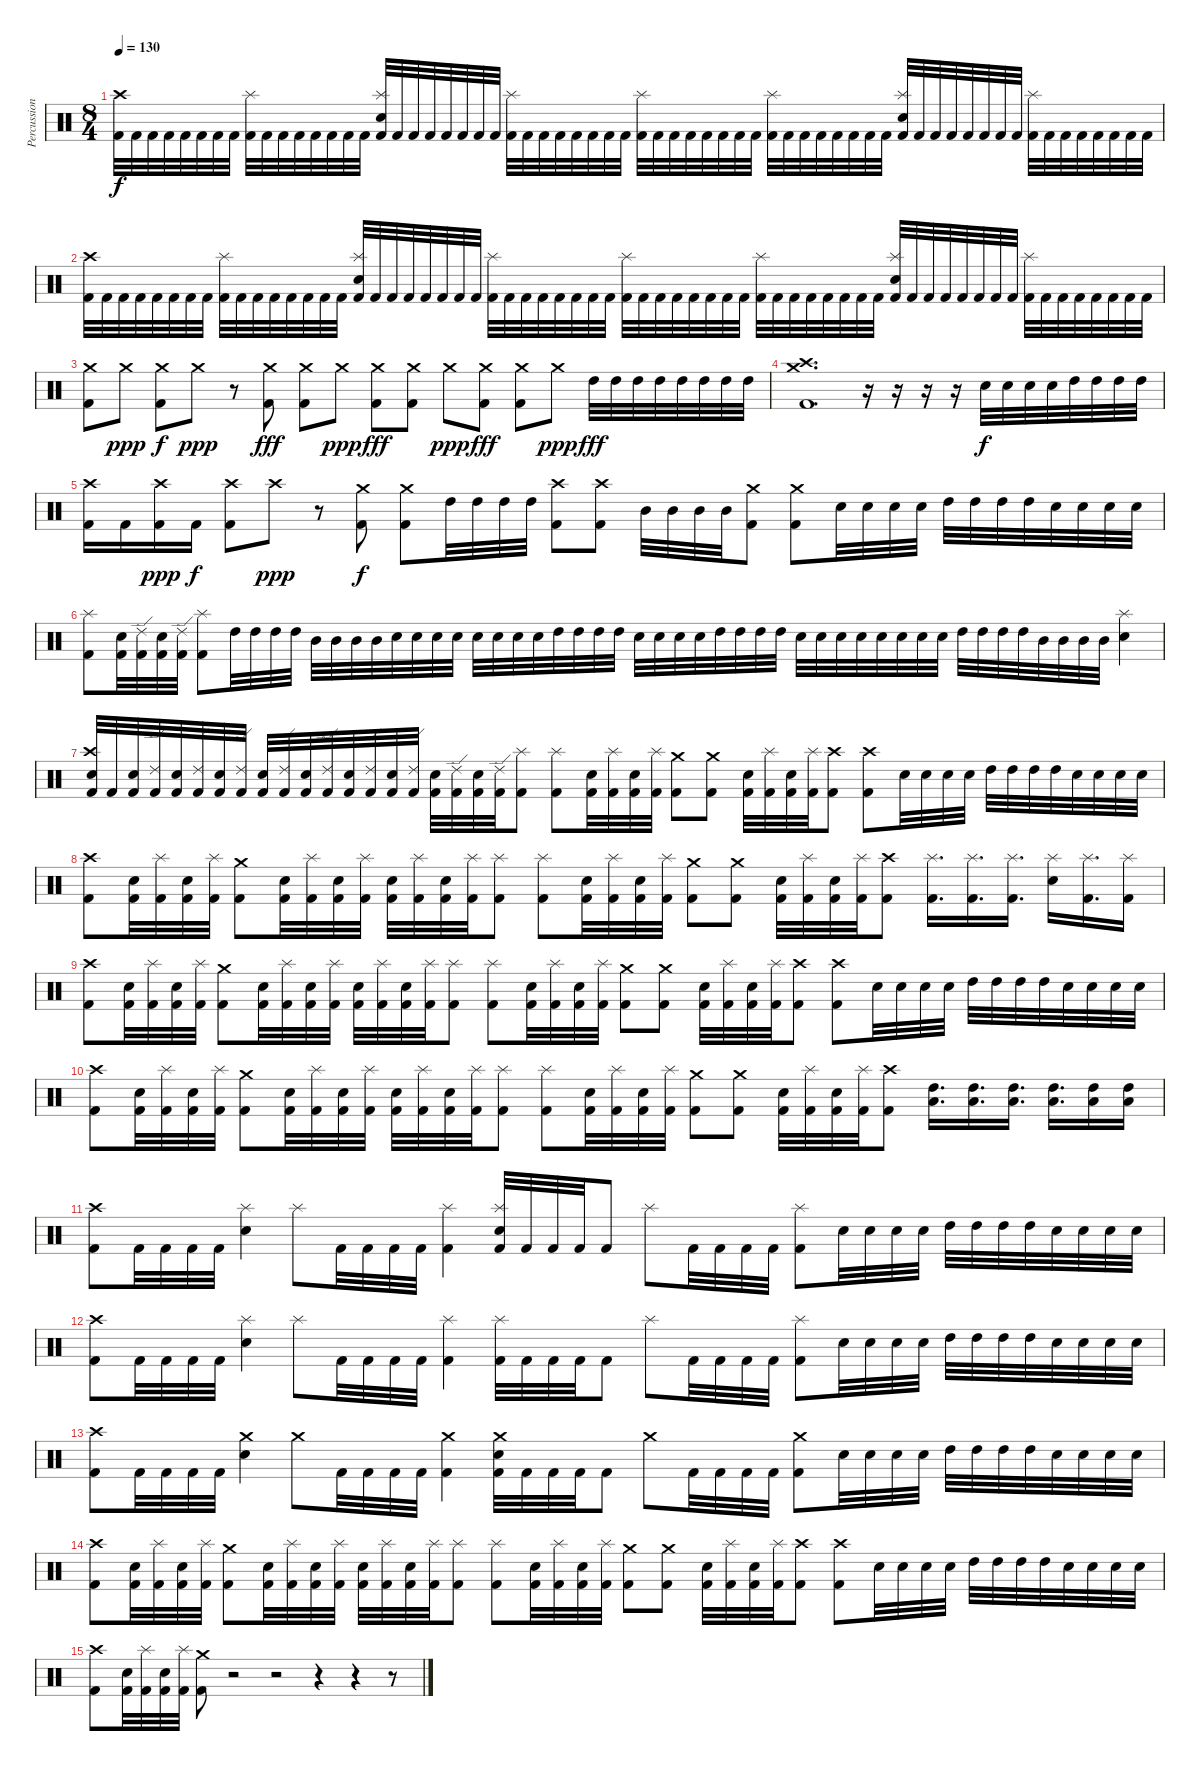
\track ("Percussion" "Percussion") {instrument percussion}
\staff {score}
\articulation defaults
\ts (8 4)
\tempo 130
\clef neutral
\ks c
("Kick (hit) 2" "Crash high (hit)").32{dy f} "Kick (hit) 2".32 "Kick (hit) 2".32 "Kick (hit) 2".32 "Kick (hit) 2".32 "Kick (hit) 2".32 "Kick (hit) 2".32 "Kick (hit) 2".32 ("Kick (hit) 2" "Splash (hit)").32 "Kick (hit) 2".32 "Kick (hit) 2".32 "Kick (hit) 2".32 "Kick (hit) 2".32 "Kick (hit) 2".32 "Kick (hit) 2".32 "Kick (hit) 2".32 ("Kick (hit) 2" "Electric Snare (hit)" "Splash (hit)").32 "Kick (hit) 2".32 "Kick (hit) 2".32 "Kick (hit) 2".32 "Kick (hit) 2".32 "Kick (hit) 2".32 "Kick (hit) 2".32 "Kick (hit) 2".32 ("Kick (hit) 2" "Splash (hit)").32 "Kick (hit) 2".32 "Kick (hit) 2".32 "Kick (hit) 2".32 "Kick (hit) 2".32 "Kick (hit) 2".32 "Kick (hit) 2".32 "Kick (hit) 2".32 ("Kick (hit) 2" "Splash (hit)").32 "Kick (hit) 2".32 "Kick (hit) 2".32 "Kick (hit) 2".32 "Kick (hit) 2".32 "Kick (hit) 2".32 "Kick (hit) 2".32 "Kick (hit) 2".32 ("Kick (hit) 2" "Splash (hit)").32 "Kick (hit) 2".32 "Kick (hit) 2".32 "Kick (hit) 2".32 "Kick (hit) 2".32 "Kick (hit) 2".32 "Kick (hit) 2".32 "Kick (hit) 2".32 ("Kick (hit) 2" "Electric Snare (hit)" "Splash (hit)").32 "Kick (hit) 2".32 "Kick (hit) 2".32 "Kick (hit) 2".32 "Kick (hit) 2".32 "Kick (hit) 2".32 "Kick (hit) 2".32 "Kick (hit) 2".32 ("Kick (hit) 2" "Splash (hit)").32 "Kick (hit) 2".32 "Kick (hit) 2".32 "Kick (hit) 2".32 "Kick (hit) 2".32 "Kick (hit) 2".32 "Kick (hit) 2".32 "Kick (hit) 2".32 |
("Kick (hit) 2" "Crash high (hit)").32 "Kick (hit) 2".32 "Kick (hit) 2".32 "Kick (hit) 2".32 "Kick (hit) 2".32 "Kick (hit) 2".32 "Kick (hit) 2".32 "Kick (hit) 2".32 ("Kick (hit) 2" "Splash (hit)").32 "Kick (hit) 2".32 "Kick (hit) 2".32 "Kick (hit) 2".32 "Kick (hit) 2".32 "Kick (hit) 2".32 "Kick (hit) 2".32 "Kick (hit) 2".32 ("Kick (hit) 2" "Electric Snare (hit)" "Splash (hit)").32 "Kick (hit) 2".32 "Kick (hit) 2".32 "Kick (hit) 2".32 "Kick (hit) 2".32 "Kick (hit) 2".32 "Kick (hit) 2".32 "Kick (hit) 2".32 ("Kick (hit) 2" "Splash (hit)").32 "Kick (hit) 2".32 "Kick (hit) 2".32 "Kick (hit) 2".32 "Kick (hit) 2".32 "Kick (hit) 2".32 "Kick (hit) 2".32 "Kick (hit) 2".32 ("Kick (hit) 2" "Splash (hit)").32 "Kick (hit) 2".32 "Kick (hit) 2".32 "Kick (hit) 2".32 "Kick (hit) 2".32 "Kick (hit) 2".32 "Kick (hit) 2".32 "Kick (hit) 2".32 ("Kick (hit) 2" "Splash (hit)").32 "Kick (hit) 2".32 "Kick (hit) 2".32 "Kick (hit) 2".32 "Kick (hit) 2".32 "Kick (hit) 2".32 "Kick (hit) 2".32 "Kick (hit) 2".32 ("Kick (hit) 2" "Electric Snare (hit)" "Splash (hit)").32 "Kick (hit) 2".32 "Kick (hit) 2".32 "Kick (hit) 2".32 "Kick (hit) 2".32 "Kick (hit) 2".32 "Kick (hit) 2".32 "Kick (hit) 2".32 ("Kick (hit) 2" "Splash (hit)").32 "Kick (hit) 2".32 "Kick (hit) 2".32 "Kick (hit) 2".32 "Kick (hit) 2".32 "Kick (hit) 2".32 "Kick (hit) 2".32 "Kick (hit) 2".32 |
("Kick (hit) 2" "Crash medium (hit)").8 "Crash medium (hit)".8{dy ppp} ("Kick (hit) 2" "Crash medium (hit)").8{dy f} "Crash medium (hit)".8{dy ppp} r.8 ("Kick (hit) 2" "Crash medium (hit)").8{dy fff} ("Kick (hit) 2" "Crash medium (hit)").8 "Crash medium (hit)".8{dy ppp} ("Kick (hit) 2" "Crash medium (hit)").8{dy fff} ("Kick (hit) 2" "Crash medium (hit)").8 "Crash medium (hit)".8{dy ppp} ("Kick (hit) 2" "Crash medium (hit)").8{dy fff} ("Kick (hit) 2" "Crash medium (hit)").8 "Crash medium (hit)".8{dy ppp} "High Tom (hit)".32{dy fff} "High Tom (hit)".32 "High Tom (hit)".32 "High Tom (hit)".32 "High Tom (hit)".32 "High Tom (hit)".32 "High Tom (hit)".32 "High Tom (hit)".32 |
("Kick (hit) 2" "Crash high (hit)" "Crash medium (hit)").1{d} r.16 r.16 r.16 r.16 "Electric Snare (hit)".32{dy f} "Electric Snare (hit)".32 "Electric Snare (hit)".32 "Electric Snare (hit)".32 "High Tom (hit)".32 "High Tom (hit)".32 "High Tom (hit)".32 "High Tom (hit)".32 |
("Kick (hit) 2" "Crash high (hit)").16 "Kick (hit) 2".16 ("Kick (hit) 2" "Crash high (hit)").16{dy ppp} "Kick (hit) 2".16{dy f} ("Kick (hit) 2" "Crash high (hit)").8 "Crash high (hit)".8{dy ppp} r.8 ("Kick (hit) 2" "Crash medium (hit)").8{dy f} ("Kick (hit) 2" "Crash medium (hit)").8 "High Tom (hit)".32 "High Tom (hit)".32 "High Tom (hit)".32 "High Tom (hit)".32 ("Kick (hit) 2" "Crash high (hit)").8 ("Kick (hit) 2" "Crash high (hit)").8 "Mid Tom (hit)".32 "Mid Tom (hit)".32 "Mid Tom (hit)".32 "Mid Tom (hit)".32 ("Kick (hit) 2" "Crash medium (hit)").8 ("Kick (hit) 2" "Crash medium (hit)").8 "Electric Snare (hit)".32 "Electric Snare (hit)".32 "Electric Snare (hit)".32 "Electric Snare (hit)".32 "High Tom (hit)".32 "High Tom (hit)".32 "High Tom (hit)".32 "High Tom (hit)".32 "Electric Snare (hit)".32 "Electric Snare (hit)".32 "Electric Snare (hit)".32 "Electric Snare (hit)".32 |
("Kick (hit) 2" "Splash (hit)").8 ("Kick (hit) 2" "Electric Snare (hit)").32 ("Kick (hit) 2" "Ride (edge) 2").32 ("Kick (hit) 2" "Electric Snare (hit)").32 ("Kick (hit) 2" "Ride (edge) 2").32 ("Kick (hit) 2" "Splash (hit)").8 "High Tom (hit)".32 "High Tom (hit)".32 "High Tom (hit)".32 "High Tom (hit)".32 "Mid Tom (hit)".32 "Mid Tom (hit)".32 "Mid Tom (hit)".32 "Mid Tom (hit)".32 "Electric Snare (hit)".32 "Electric Snare (hit)".32 "Electric Snare (hit)".32 "Electric Snare (hit)".32 "Electric Snare (hit)".32 "Electric Snare (hit)".32 "Electric Snare (hit)".32 "Electric Snare (hit)".32 "High Tom (hit)".32 "High Tom (hit)".32 "High Tom (hit)".32 "High Tom (hit)".32 "Electric Snare (hit)".32 "Electric Snare (hit)".32 "Electric Snare (hit)".32 "Electric Snare (hit)".32 "High Tom (hit)".32 "High Tom (hit)".32 "High Tom (hit)".32 "High Tom (hit)".32 "Electric Snare (hit)".32 "Electric Snare (hit)".32 "Electric Snare (hit)".32 "Electric Snare (hit)".32 "Electric Snare (hit)".32 "Electric Snare (hit)".32 "Electric Snare (hit)".32 "Electric Snare (hit)".32 "High Tom (hit)".32 "High Tom (hit)".32 "High Tom (hit)".32 "High Tom (hit)".32 "Mid Tom (hit)".32 "Mid Tom (hit)".32 "Mid Tom (hit)".32 "Mid Tom (hit)".32 ("Electric Snare (hit)" "Splash (hit)").4 |
("Kick (hit) 2" "Electric Snare (hit)" "Crash high (hit)").32 "Kick (hit) 2".32 ("Kick (hit) 2" "Electric Snare (hit)").32 ("Kick (hit) 2" "Ride (edge) 2").32 ("Kick (hit) 2" "Electric Snare (hit)").32 ("Kick (hit) 2" "Ride (edge) 2").32 ("Kick (hit) 2" "Electric Snare (hit)").32 ("Kick (hit) 2" "Ride (edge) 2").32 ("Kick (hit) 2" "Electric Snare (hit)").32 ("Kick (hit) 2" "Ride (edge) 2").32 ("Kick (hit) 2" "Electric Snare (hit)").32 ("Kick (hit) 2" "Ride (edge) 2").32 ("Kick (hit) 2" "Electric Snare (hit)").32 ("Kick (hit) 2" "Ride (edge) 2").32 ("Kick (hit) 2" "Electric Snare (hit)").32 ("Kick (hit) 2" "Ride (edge) 2").32 ("Kick (hit) 2" "Electric Snare (hit)").32 ("Kick (hit) 2" "Ride (edge) 2").32 ("Kick (hit) 2" "Electric Snare (hit)").32 ("Kick (hit) 2" "Ride (edge) 2").32 ("Kick (hit) 2" "Splash (hit)").8 ("Kick (hit) 2" "Splash (hit)").8 ("Kick (hit) 2" "Electric Snare (hit)").32 ("Kick (hit) 2" "Splash (hit)").32 ("Kick (hit) 2" "Electric Snare (hit)").32 ("Kick (hit) 2" "Splash (hit)").32 ("Kick (hit) 2" "Crash medium (hit)").8 ("Kick (hit) 2" "Crash medium (hit)").8 ("Kick (hit) 2" "Electric Snare (hit)").32 ("Kick (hit) 2" "Splash (hit)").32 ("Kick (hit) 2" "Electric Snare (hit)").32 ("Kick (hit) 2" "Splash (hit)").32 ("Kick (hit) 2" "Crash high (hit)").8 ("Kick (hit) 2" "Crash high (hit)").8 "Electric Snare (hit)".32 "Electric Snare (hit)".32 "Electric Snare (hit)".32 "Electric Snare (hit)".32 "High Tom (hit)".32 "High Tom (hit)".32 "High Tom (hit)".32 "High Tom (hit)".32 "Electric Snare (hit)".32 "Electric Snare (hit)".32 "Electric Snare (hit)".32 "Electric Snare (hit)".32 |
("Kick (hit) 2" "Crash high (hit)").8 ("Kick (hit) 2" "Electric Snare (hit)").32 ("Kick (hit) 2" "Splash (hit)").32 ("Kick (hit) 2" "Electric Snare (hit)").32 ("Kick (hit) 2" "Splash (hit)").32 ("Kick (hit) 2" "Crash medium (hit)").8 ("Kick (hit) 2" "Electric Snare (hit)").32 ("Kick (hit) 2" "Splash (hit)").32 ("Kick (hit) 2" "Electric Snare (hit)").32 ("Kick (hit) 2" "Splash (hit)").32 ("Kick (hit) 2" "Electric Snare (hit)").32 ("Kick (hit) 2" "Splash (hit)").32 ("Kick (hit) 2" "Electric Snare (hit)").32 ("Kick (hit) 2" "Splash (hit)").32 ("Kick (hit) 2" "Splash (hit)").8 ("Kick (hit) 2" "Splash (hit)").8 ("Kick (hit) 2" "Electric Snare (hit)").32 ("Kick (hit) 2" "Splash (hit)").32 ("Kick (hit) 2" "Electric Snare (hit)").32 ("Kick (hit) 2" "Splash (hit)").32 ("Kick (hit) 2" "Crash medium (hit)").8 ("Kick (hit) 2" "Crash medium (hit)").8 ("Kick (hit) 2" "Electric Snare (hit)").32 ("Kick (hit) 2" "Splash (hit)").32 ("Kick (hit) 2" "Electric Snare (hit)").32 ("Kick (hit) 2" "Splash (hit)").32 ("Kick (hit) 2" "Crash high (hit)").8 ("Kick (hit) 2" "Splash (hit)").16{d} ("Kick (hit) 2" "Splash (hit)").16{d} ("Kick (hit) 2" "Splash (hit)").16{d} ("Electric Snare (hit)" "Splash (hit)").16 ("Kick (hit) 2" "Splash (hit)").16{d} ("Kick (hit) 2" "Splash (hit)").16 |
("Kick (hit) 2" "Crash high (hit)").8 ("Kick (hit) 2" "Electric Snare (hit)").32 ("Kick (hit) 2" "Splash (hit)").32 ("Kick (hit) 2" "Electric Snare (hit)").32 ("Kick (hit) 2" "Splash (hit)").32 ("Kick (hit) 2" "Crash medium (hit)").8 ("Kick (hit) 2" "Electric Snare (hit)").32 ("Kick (hit) 2" "Splash (hit)").32 ("Kick (hit) 2" "Electric Snare (hit)").32 ("Kick (hit) 2" "Splash (hit)").32 ("Kick (hit) 2" "Electric Snare (hit)").32 ("Kick (hit) 2" "Splash (hit)").32 ("Kick (hit) 2" "Electric Snare (hit)").32 ("Kick (hit) 2" "Splash (hit)").32 ("Kick (hit) 2" "Splash (hit)").8 ("Kick (hit) 2" "Splash (hit)").8 ("Kick (hit) 2" "Electric Snare (hit)").32 ("Kick (hit) 2" "Splash (hit)").32 ("Kick (hit) 2" "Electric Snare (hit)").32 ("Kick (hit) 2" "Splash (hit)").32 ("Kick (hit) 2" "Crash medium (hit)").8 ("Kick (hit) 2" "Crash medium (hit)").8 ("Kick (hit) 2" "Electric Snare (hit)").32 ("Kick (hit) 2" "Splash (hit)").32 ("Kick (hit) 2" "Electric Snare (hit)").32 ("Kick (hit) 2" "Splash (hit)").32 ("Kick (hit) 2" "Crash high (hit)").8 ("Kick (hit) 2" "Crash high (hit)").8 "Electric Snare (hit)".32 "Electric Snare (hit)".32 "Electric Snare (hit)".32 "Electric Snare (hit)".32 "High Tom (hit)".32 "High Tom (hit)".32 "High Tom (hit)".32 "High Tom (hit)".32 "Electric Snare (hit)".32 "Electric Snare (hit)".32 "Electric Snare (hit)".32 "Electric Snare (hit)".32 |
("Kick (hit) 2" "Crash high (hit)").8 ("Kick (hit) 2" "Electric Snare (hit)").32 ("Kick (hit) 2" "Splash (hit)").32 ("Kick (hit) 2" "Electric Snare (hit)").32 ("Kick (hit) 2" "Splash (hit)").32 ("Kick (hit) 2" "Crash medium (hit)").8 ("Kick (hit) 2" "Electric Snare (hit)").32 ("Kick (hit) 2" "Splash (hit)").32 ("Kick (hit) 2" "Electric Snare (hit)").32 ("Kick (hit) 2" "Splash (hit)").32 ("Kick (hit) 2" "Electric Snare (hit)").32 ("Kick (hit) 2" "Splash (hit)").32 ("Kick (hit) 2" "Electric Snare (hit)").32 ("Kick (hit) 2" "Splash (hit)").32 ("Kick (hit) 2" "Splash (hit)").8 ("Kick (hit) 2" "Splash (hit)").8 ("Kick (hit) 2" "Electric Snare (hit)").32 ("Kick (hit) 2" "Splash (hit)").32 ("Kick (hit) 2" "Electric Snare (hit)").32 ("Kick (hit) 2" "Splash (hit)").32 ("Kick (hit) 2" "Crash medium (hit)").8 ("Kick (hit) 2" "Crash medium (hit)").8 ("Kick (hit) 2" "Electric Snare (hit)").32 ("Kick (hit) 2" "Splash (hit)").32 ("Kick (hit) 2" "Electric Snare (hit)").32 ("Kick (hit) 2" "Splash (hit)").32 ("Kick (hit) 2" "Crash high (hit)").8 ("High Tom (hit)" "Low Floor Tom (hit)").16{d} ("High Tom (hit)" "Low Floor Tom (hit)").16{d} ("High Tom (hit)" "Low Floor Tom (hit)").16{d} ("High Tom (hit)" "Low Floor Tom (hit)").16{d} ("High Tom (hit)" "Low Floor Tom (hit)").16 ("High Tom (hit)" "Low Floor Tom (hit)").16 |
("Kick (hit) 2" "Crash high (hit)").8 "Kick (hit) 2".32 "Kick (hit) 2".32 "Kick (hit) 2".32 "Kick (hit) 2".32 ("Electric Snare (hit)" "Splash (hit)").4 "Splash (hit)".8 "Kick (hit) 2".32 "Kick (hit) 2".32 "Kick (hit) 2".32 "Kick (hit) 2".32 ("Kick (hit) 2" "Splash (hit)").4 ("Kick (hit) 2" "Electric Snare (hit)" "Splash (hit)").32 "Kick (hit) 2".32 "Kick (hit) 2".32 "Kick (hit) 2".32 "Kick (hit) 2".8 "Splash (hit)".8 "Kick (hit) 2".32 "Kick (hit) 2".32 "Kick (hit) 2".32 "Kick (hit) 2".32 ("Kick (hit) 2" "Splash (hit)").8 "Electric Snare (hit)".32 "Electric Snare (hit)".32 "Electric Snare (hit)".32 "Electric Snare (hit)".32 "High Tom (hit)".32 "High Tom (hit)".32 "High Tom (hit)".32 "High Tom (hit)".32 "Electric Snare (hit)".32 "Electric Snare (hit)".32 "Electric Snare (hit)".32 "Electric Snare (hit)".32 |
("Kick (hit) 2" "Crash high (hit)").8 "Kick (hit) 2".32 "Kick (hit) 2".32 "Kick (hit) 2".32 "Kick (hit) 2".32 ("Electric Snare (hit)" "Splash (hit)").4 "Splash (hit)".8 "Kick (hit) 2".32 "Kick (hit) 2".32 "Kick (hit) 2".32 "Kick (hit) 2".32 ("Kick (hit) 2" "Splash (hit)").4 ("Kick (hit) 2" "Splash (hit)").32 "Kick (hit) 2".32 "Kick (hit) 2".32 "Kick (hit) 2".32 "Kick (hit) 2".8 "Splash (hit)".8 "Kick (hit) 2".32 "Kick (hit) 2".32 "Kick (hit) 2".32 "Kick (hit) 2".32 ("Kick (hit) 2" "Splash (hit)").8 "Electric Snare (hit)".32 "Electric Snare (hit)".32 "Electric Snare (hit)".32 "Electric Snare (hit)".32 "High Tom (hit)".32 "High Tom (hit)".32 "High Tom (hit)".32 "High Tom (hit)".32 "Electric Snare (hit)".32 "Electric Snare (hit)".32 "Electric Snare (hit)".32 "Electric Snare (hit)".32 |
("Kick (hit) 2" "Crash high (hit)").8 "Kick (hit) 2".32 "Kick (hit) 2".32 "Kick (hit) 2".32 "Kick (hit) 2".32 ("Electric Snare (hit)" "Crash medium (hit)").4 "Crash medium (hit)".8 "Kick (hit) 2".32 "Kick (hit) 2".32 "Kick (hit) 2".32 "Kick (hit) 2".32 ("Kick (hit) 2" "Crash medium (hit)").4 ("Kick (hit) 2" "Electric Snare (hit)" "Crash medium (hit)").32 "Kick (hit) 2".32 "Kick (hit) 2".32 "Kick (hit) 2".32 "Kick (hit) 2".8 "Crash medium (hit)".8 "Kick (hit) 2".32 "Kick (hit) 2".32 "Kick (hit) 2".32 "Kick (hit) 2".32 ("Kick (hit) 2" "Crash medium (hit)").8 "Electric Snare (hit)".32 "Electric Snare (hit)".32 "Electric Snare (hit)".32 "Electric Snare (hit)".32 "High Tom (hit)".32 "High Tom (hit)".32 "High Tom (hit)".32 "High Tom (hit)".32 "Electric Snare (hit)".32 "Electric Snare (hit)".32 "Electric Snare (hit)".32 "Electric Snare (hit)".32 |
("Kick (hit) 2" "Crash high (hit)").8 ("Kick (hit) 2" "Electric Snare (hit)").32 ("Kick (hit) 2" "Splash (hit)").32 ("Kick (hit) 2" "Electric Snare (hit)").32 ("Kick (hit) 2" "Splash (hit)").32 ("Kick (hit) 2" "Crash medium (hit)").8 ("Kick (hit) 2" "Electric Snare (hit)").32 ("Kick (hit) 2" "Splash (hit)").32 ("Kick (hit) 2" "Electric Snare (hit)").32 ("Kick (hit) 2" "Splash (hit)").32 ("Kick (hit) 2" "Electric Snare (hit)").32 ("Kick (hit) 2" "Splash (hit)").32 ("Kick (hit) 2" "Electric Snare (hit)").32 ("Kick (hit) 2" "Splash (hit)").32 ("Kick (hit) 2" "Splash (hit)").8 ("Kick (hit) 2" "Splash (hit)").8 ("Kick (hit) 2" "Electric Snare (hit)").32 ("Kick (hit) 2" "Splash (hit)").32 ("Kick (hit) 2" "Electric Snare (hit)").32 ("Kick (hit) 2" "Splash (hit)").32 ("Kick (hit) 2" "Crash medium (hit)").8 ("Kick (hit) 2" "Crash medium (hit)").8 ("Kick (hit) 2" "Electric Snare (hit)").32 ("Kick (hit) 2" "Splash (hit)").32 ("Kick (hit) 2" "Electric Snare (hit)").32 ("Kick (hit) 2" "Splash (hit)").32 ("Kick (hit) 2" "Crash high (hit)").8 ("Kick (hit) 2" "Crash high (hit)").8 "Electric Snare (hit)".32 "Electric Snare (hit)".32 "Electric Snare (hit)".32 "Electric Snare (hit)".32 "High Tom (hit)".32 "High Tom (hit)".32 "High Tom (hit)".32 "High Tom (hit)".32 "Electric Snare (hit)".32 "Electric Snare (hit)".32 "Electric Snare (hit)".32 "Electric Snare (hit)".32 |
("Kick (hit) 2" "Crash high (hit)").8 ("Kick (hit) 2" "Electric Snare (hit)").32 ("Kick (hit) 2" "Splash (hit)").32 ("Kick (hit) 2" "Electric Snare (hit)").32 ("Kick (hit) 2" "Splash (hit)").32 ("Kick (hit) 2" "Crash medium (hit)").8 r.2{volume 0} r.2 r.4 r.4 r.8
